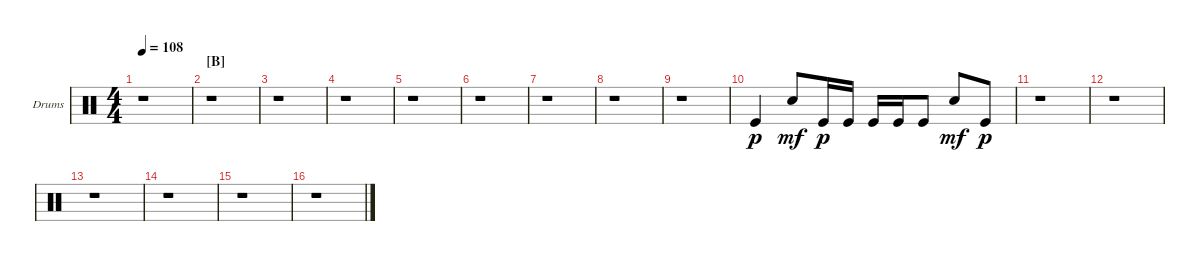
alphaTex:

\defaultSystemsLayout 4
\bracketExtendMode groupsimilarinstruments
\firstSystemTrackNameOrientation horizontal
\otherSystemsTrackNameOrientation horizontal
\track ("Drumkit Virtual" "Drums") {instrument percussion}
\staff {score}
\articulation defaults
\ts (4 4)
\tempo 108
\clef neutral
\scale
0.333333
\ks c
r.1{dy p} |
\section ("B" "")
\scale
0.333333 r.1 |
\scale
0.333333 r.1 |
\scale
0.333333 r.1 |
\scale
0.333333 r.1 |
\scale
0.333333 r.1 |
\scale
0.333333 r.1 |
\scale
0.333333 r.1 |
\scale
0.333333 r.1 |
\scale
0.333333 "Kick (hit)".4 "Snare (hit) 2".8{dy mf} "Kick (hit)".16{dy p} "Kick (hit)".16 "Kick (hit)".16 "Kick (hit)".16 "Kick (hit)".8 "Snare (hit) 2".8{dy mf} "Kick (hit)".8{dy p} |
\scale
0.333333 r.1 |
\scale
0.333333 r.1 |
\scale
0.333333 r.1 |
\scale
0.333333 r.1 |
\scale
0.333333 r.1 |
\scale
0.333333 r.1
